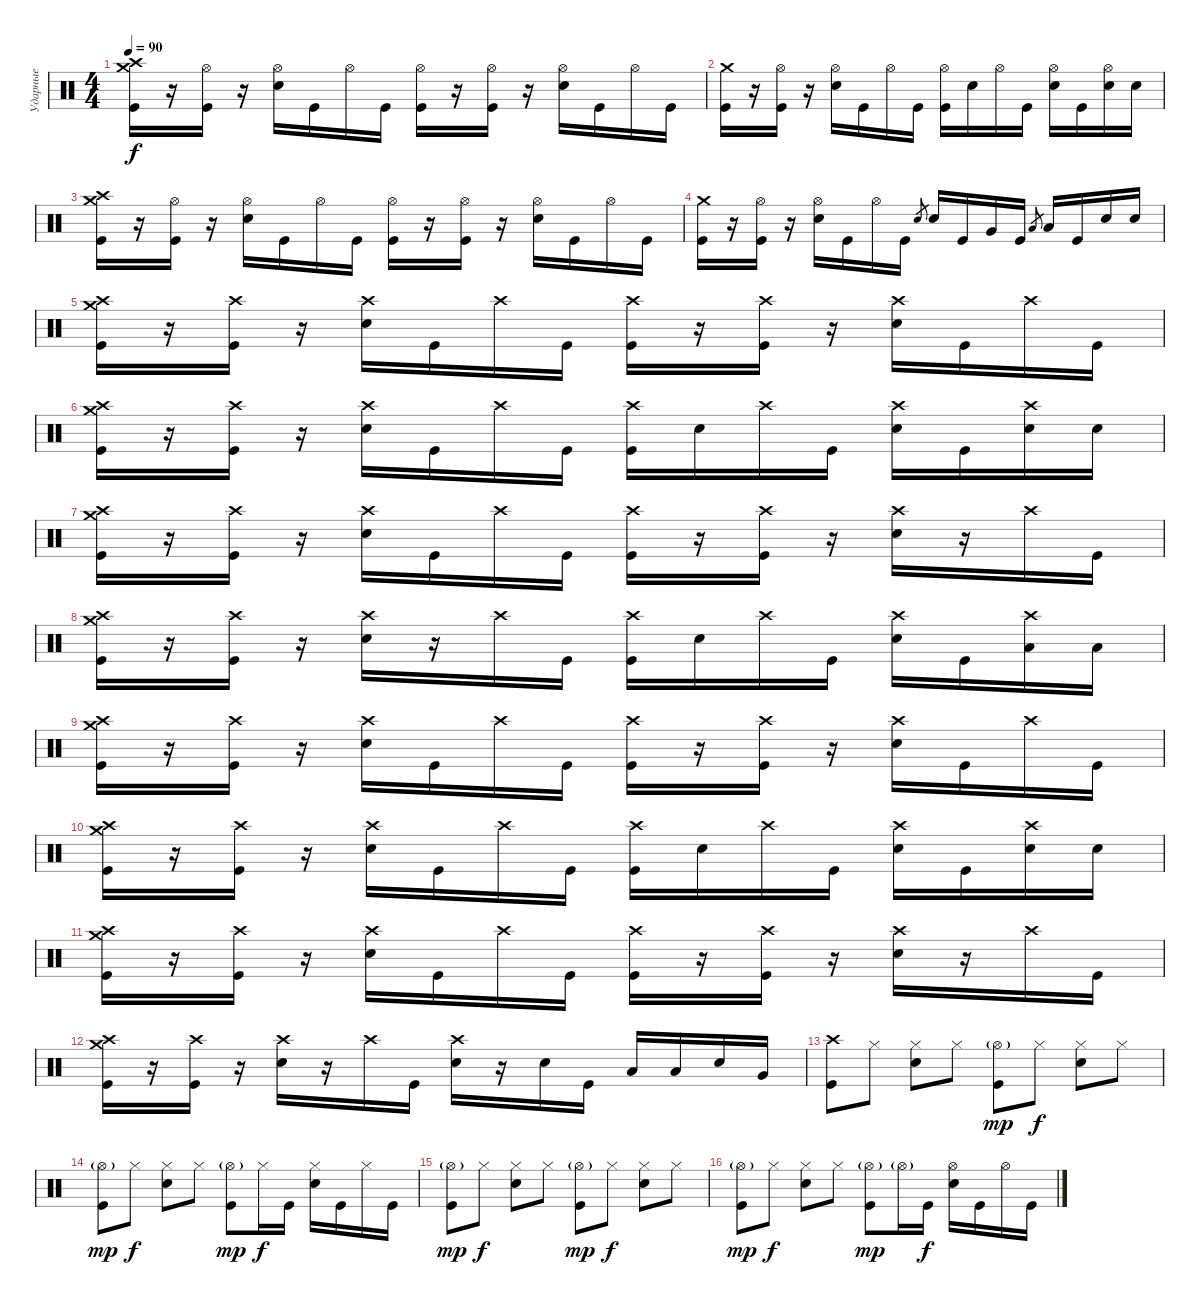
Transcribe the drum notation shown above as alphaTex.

\track ("Ударные" "Ударные") {instrument percussion}
\staff {score}
\articulation defaults
\ts (4 4)
\tempo 90
\clef neutral
\ks c
("Crash high (hit)" "Kick (hit)" "Crash medium (hit)").16{dy f} r.16 ("Kick (hit)" "Hi-Hat (open)").16 r.16 ("Hi-Hat (open)" "Snare (hit) 2").16 "Kick (hit)".16 "Hi-Hat (open)".16 "Kick (hit)".16 ("Hi-Hat (open)" "Kick (hit)").16 r.16 ("Hi-Hat (open)" "Kick (hit)").16 r.16 ("Hi-Hat (open)" "Snare (hit) 2").16 "Kick (hit)".16 "Hi-Hat (open)".16 "Kick (hit)".16 |
("Kick (hit)" "Crash medium (hit)").16 r.16 ("Kick (hit)" "Hi-Hat (open)").16 r.16 ("Hi-Hat (open)" "Snare (hit) 2").16 "Kick (hit)".16 "Hi-Hat (open)".16 "Kick (hit)".16 ("Hi-Hat (open)" "Kick (hit)").16 "Snare (hit) 2".16 "Hi-Hat (open)".16 "Kick (hit)".16 ("Hi-Hat (open)" "Snare (hit) 2").16 "Kick (hit)".16 ("Hi-Hat (open)" "Snare (hit) 2").16 "Snare (hit) 2".16 |
("Crash high (hit)" "Kick (hit)" "Crash medium (hit)").16 r.16 ("Kick (hit)" "Hi-Hat (open)").16 r.16 ("Hi-Hat (open)" "Snare (hit) 2").16 "Kick (hit)".16 "Hi-Hat (open)".16 "Kick (hit)".16 ("Hi-Hat (open)" "Kick (hit)").16 r.16 ("Hi-Hat (open)" "Kick (hit)").16 r.16 ("Hi-Hat (open)" "Snare (hit) 2").16 "Kick (hit)".16 "Hi-Hat (open)".16 "Kick (hit)".16 |
("Kick (hit)" "Crash medium (hit)").16 r.16 ("Kick (hit)" "Hi-Hat (open)").16 r.16 ("Hi-Hat (open)" "Snare (hit) 2").16 "Kick (hit)".16 "Hi-Hat (open)".16 "Kick (hit)".16 "Snare (hit) 2".8{gr} "Snare (hit) 2".16 "Kick (hit)".16 "Very Low Tom (hit)".16 "Kick (hit)".16 "Low Tom (hit)".8{gr} "Low Tom (hit)".16 "Kick (hit)".16 "Snare (hit) 2".16 "Snare (hit) 2".16 |
("Crash high (hit)" "Kick (hit)" "Crash medium (hit)").16 r.16 ("Kick (hit)" "Crash high (hit)").16 r.16 ("Crash high (hit)" "Snare (hit) 2").16 "Kick (hit)".16 "Crash high (hit)".16 "Kick (hit)".16 ("Crash high (hit)" "Kick (hit)").16 r.16 ("Crash high (hit)" "Kick (hit)").16 r.16 ("Crash high (hit)" "Snare (hit) 2").16 "Kick (hit)".16 "Crash high (hit)".16 "Kick (hit)".16 |
("Crash high (hit)" "Kick (hit)" "Crash medium (hit)").16 r.16 ("Kick (hit)" "Crash high (hit)").16 r.16 ("Crash high (hit)" "Snare (hit) 2").16 "Kick (hit)".16 "Crash high (hit)".16 "Kick (hit)".16 ("Crash high (hit)" "Kick (hit)").16 "Snare (hit) 2".16 "Crash high (hit)".16 "Kick (hit)".16 ("Crash high (hit)" "Snare (hit) 2").16 "Kick (hit)".16 ("Crash high (hit)" "Snare (hit) 2").16 "Snare (hit) 2".16 |
("Crash high (hit)" "Kick (hit)" "Crash medium (hit)").16 r.16 ("Kick (hit)" "Crash high (hit)").16 r.16 ("Crash high (hit)" "Snare (hit) 2").16 "Kick (hit)".16 "Crash high (hit)".16 "Kick (hit)".16 ("Crash high (hit)" "Kick (hit)").16 r.16 ("Crash high (hit)" "Kick (hit)").16 r.16 ("Crash high (hit)" "Snare (hit) 2").16 r.16 "Crash high (hit)".16 "Kick (hit)".16 |
("Crash high (hit)" "Kick (hit)" "Crash medium (hit)").16 r.16 ("Kick (hit)" "Crash high (hit)").16 r.16 ("Crash high (hit)" "Snare (hit) 2").16 r.16 "Crash high (hit)".16 "Kick (hit)".16 ("Crash high (hit)" "Kick (hit)").16 "Snare (hit) 2".16 "Crash high (hit)".16 "Kick (hit)".16 ("Crash high (hit)" "Snare (hit) 2").16 "Kick (hit)".16 ("Low Floor Tom (hit)" "Crash high (hit)").16 "Low Floor Tom (hit)".16 |
("Crash high (hit)" "Kick (hit)" "Crash medium (hit)").16 r.16 ("Kick (hit)" "Crash high (hit)").16 r.16 ("Crash high (hit)" "Snare (hit) 2").16 "Kick (hit)".16 "Crash high (hit)".16 "Kick (hit)".16 ("Crash high (hit)" "Kick (hit)").16 r.16 ("Crash high (hit)" "Kick (hit)").16 r.16 ("Crash high (hit)" "Snare (hit) 2").16 "Kick (hit)".16 "Crash high (hit)".16 "Kick (hit)".16 |
("Crash high (hit)" "Kick (hit)" "Crash medium (hit)").16 r.16 ("Kick (hit)" "Crash high (hit)").16 r.16 ("Crash high (hit)" "Snare (hit) 2").16 "Kick (hit)".16 "Crash high (hit)".16 "Kick (hit)".16 ("Crash high (hit)" "Kick (hit)").16 "Snare (hit) 2".16 "Crash high (hit)".16 "Kick (hit)".16 ("Crash high (hit)" "Snare (hit) 2").16 "Kick (hit)".16 ("Crash high (hit)" "Snare (hit) 2").16 "Snare (hit) 2".16 |
("Crash high (hit)" "Kick (hit)" "Crash medium (hit)").16 r.16 ("Kick (hit)" "Crash high (hit)").16 r.16 ("Crash high (hit)" "Snare (hit) 2").16 "Kick (hit)".16 "Crash high (hit)".16 "Kick (hit)".16 ("Crash high (hit)" "Kick (hit)").16 r.16 ("Crash high (hit)" "Kick (hit)").16 r.16 ("Crash high (hit)" "Snare (hit) 2").16 r.16 "Crash high (hit)".16 "Kick (hit)".16 |
("Crash high (hit)" "Kick (hit)" "Crash medium (hit)").16 r.16 ("Kick (hit)" "Crash high (hit)").16 r.16 ("Crash high (hit)" "Snare (hit) 2").16 r.16 "Crash high (hit)".16 "Kick (hit)".16 ("Crash high (hit)" "Snare (hit) 2").16 r.16 "Snare (hit) 2".16 "Kick (hit)".16 "Low Tom (hit)".16 "Low Tom (hit)".16 "Snare (hit) 2".16 "Very Low Tom (hit)".16 |
("Crash high (hit)" "Kick (hit)").8 "Hi-Hat (closed)".8 ("Hi-Hat (closed)" "Snare (hit) 2").8 "Hi-Hat (closed)".8 ("Hi-Hat (open)"{g} "Kick (hit)").8{dy mp} "Hi-Hat (closed)".8{dy f} ("Hi-Hat (closed)" "Snare (hit) 2").8 "Hi-Hat (closed)".8 |
("Kick (hit)" "Hi-Hat (open)"{g}).8{dy mp} "Hi-Hat (closed)".8{dy f} ("Hi-Hat (closed)" "Snare (hit) 2").8 "Hi-Hat (closed)".8 ("Hi-Hat (open)"{g} "Kick (hit)").8{dy mp} "Hi-Hat (closed)".16{dy f} "Kick (hit)".16 ("Hi-Hat (closed)" "Snare (hit) 2").16 "Kick (hit)".16 "Hi-Hat (closed)".16 "Kick (hit)".16 |
("Hi-Hat (open)"{g} "Kick (hit)").8{dy mp} "Hi-Hat (closed)".8{dy f} ("Hi-Hat (closed)" "Snare (hit) 2").8 "Hi-Hat (closed)".8 ("Hi-Hat (open)"{g} "Kick (hit)").8{dy mp} "Hi-Hat (closed)".8{dy f} ("Hi-Hat (closed)" "Snare (hit) 2").8 "Hi-Hat (closed)".8 |
("Kick (hit)" "Hi-Hat (open)"{g}).8{dy mp} "Hi-Hat (closed)".8{dy f} ("Hi-Hat (closed)" "Snare (hit) 2").8 "Hi-Hat (closed)".8 ("Hi-Hat (open)"{g} "Kick (hit)").8{dy mp} "Hi-Hat (open)"{g}.16 "Kick (hit)".16{dy f} ("Hi-Hat (open)" "Snare (hit) 2").16 "Kick (hit)".16 "Hi-Hat (open)".16 "Kick (hit)".16
